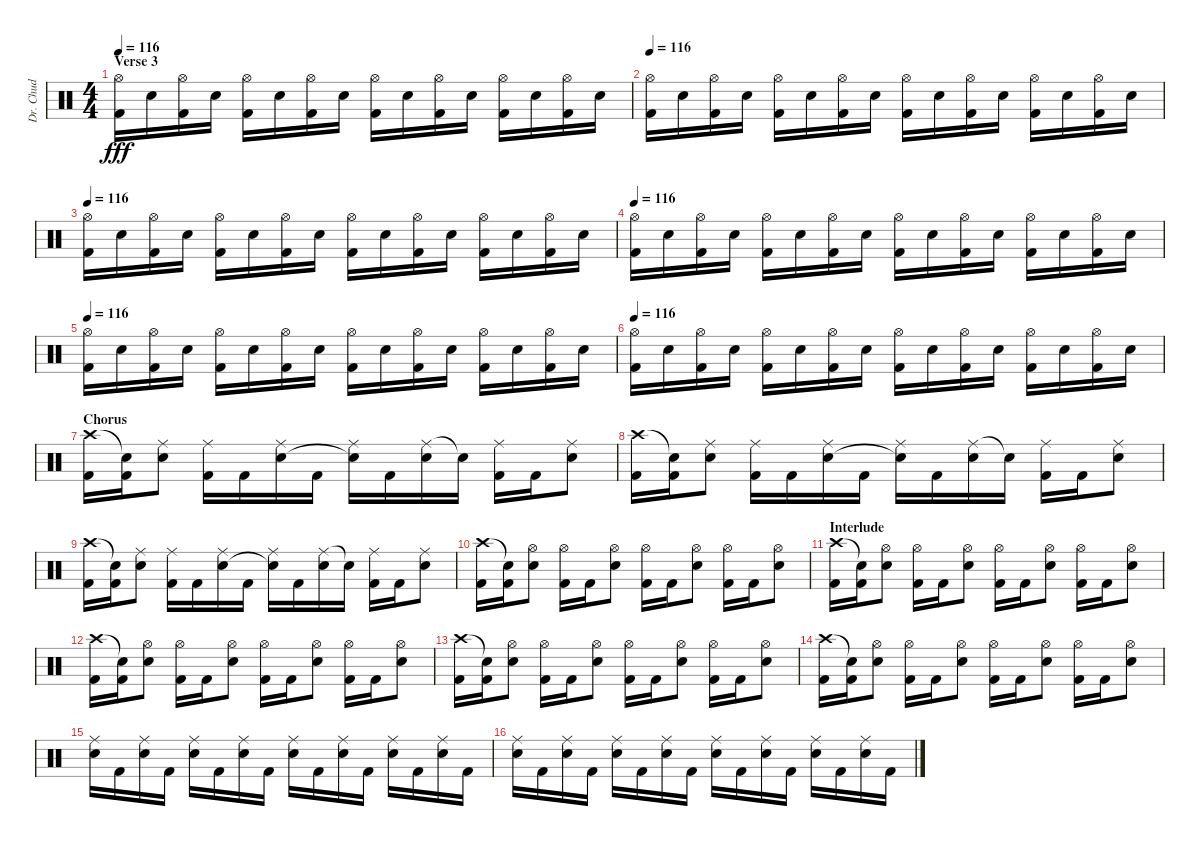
\track ("Dr. Chud" "Dr. Chud") {instrument percussion}
\staff {score}
\articulation defaults
\ts (4 4)
\section ("" "Verse 3")
\tempo 116
\clef neutral
\ks c
("Hi-Hat (open)" "Kick (hit) 2").16{dy fff} "Electric Snare (hit)".16 ("Hi-Hat (open)" "Kick (hit) 2").16 "Electric Snare (hit)".16 ("Hi-Hat (open)" "Kick (hit) 2").16 "Electric Snare (hit)".16 ("Hi-Hat (open)" "Kick (hit) 2").16 "Electric Snare (hit)".16 ("Hi-Hat (open)" "Kick (hit) 2").16 "Electric Snare (hit)".16 ("Hi-Hat (open)" "Kick (hit) 2").16 "Electric Snare (hit)".16 ("Hi-Hat (open)" "Kick (hit) 2").16 "Electric Snare (hit)".16 ("Hi-Hat (open)" "Kick (hit) 2").16 "Electric Snare (hit)".16 |
\tempo 116
("Hi-Hat (open)" "Kick (hit) 2").16 "Electric Snare (hit)".16 ("Hi-Hat (open)" "Kick (hit) 2").16 "Electric Snare (hit)".16 ("Hi-Hat (open)" "Kick (hit) 2").16 "Electric Snare (hit)".16 ("Hi-Hat (open)" "Kick (hit) 2").16 "Electric Snare (hit)".16 ("Hi-Hat (open)" "Kick (hit) 2").16 "Electric Snare (hit)".16 ("Hi-Hat (open)" "Kick (hit) 2").16 "Electric Snare (hit)".16 ("Hi-Hat (open)" "Kick (hit) 2").16 "Electric Snare (hit)".16 ("Hi-Hat (open)" "Kick (hit) 2").16 "Electric Snare (hit)".16 |
\tempo 116
("Hi-Hat (open)" "Kick (hit) 2").16 "Electric Snare (hit)".16 ("Hi-Hat (open)" "Kick (hit) 2").16 "Electric Snare (hit)".16 ("Hi-Hat (open)" "Kick (hit) 2").16 "Electric Snare (hit)".16 ("Hi-Hat (open)" "Kick (hit) 2").16 "Electric Snare (hit)".16 ("Hi-Hat (open)" "Kick (hit) 2").16 "Electric Snare (hit)".16 ("Hi-Hat (open)" "Kick (hit) 2").16 "Electric Snare (hit)".16 ("Hi-Hat (open)" "Kick (hit) 2").16 "Electric Snare (hit)".16 ("Hi-Hat (open)" "Kick (hit) 2").16 "Electric Snare (hit)".16 |
\tempo 116
("Hi-Hat (open)" "Kick (hit) 2").16 "Electric Snare (hit)".16 ("Hi-Hat (open)" "Kick (hit) 2").16 "Electric Snare (hit)".16 ("Hi-Hat (open)" "Kick (hit) 2").16 "Electric Snare (hit)".16 ("Hi-Hat (open)" "Kick (hit) 2").16 "Electric Snare (hit)".16 ("Hi-Hat (open)" "Kick (hit) 2").16 "Electric Snare (hit)".16 ("Hi-Hat (open)" "Kick (hit) 2").16 "Electric Snare (hit)".16 ("Hi-Hat (open)" "Kick (hit) 2").16 "Electric Snare (hit)".16 ("Hi-Hat (open)" "Kick (hit) 2").16 "Electric Snare (hit)".16 |
\tempo 116
("Hi-Hat (open)" "Kick (hit) 2").16 "Electric Snare (hit)".16 ("Hi-Hat (open)" "Kick (hit) 2").16 "Electric Snare (hit)".16 ("Hi-Hat (open)" "Kick (hit) 2").16 "Electric Snare (hit)".16 ("Hi-Hat (open)" "Kick (hit) 2").16 "Electric Snare (hit)".16 ("Hi-Hat (open)" "Kick (hit) 2").16 "Electric Snare (hit)".16 ("Hi-Hat (open)" "Kick (hit) 2").16 "Electric Snare (hit)".16 ("Hi-Hat (open)" "Kick (hit) 2").16 "Electric Snare (hit)".16 ("Hi-Hat (open)" "Kick (hit) 2").16 "Electric Snare (hit)".16 |
\tempo 116
("Hi-Hat (open)" "Kick (hit) 2").16 "Electric Snare (hit)".16 ("Hi-Hat (open)" "Kick (hit) 2").16 "Electric Snare (hit)".16 ("Hi-Hat (open)" "Kick (hit) 2").16 "Electric Snare (hit)".16 ("Hi-Hat (open)" "Kick (hit) 2").16 "Electric Snare (hit)".16 ("Hi-Hat (open)" "Kick (hit) 2").16 "Electric Snare (hit)".16 ("Hi-Hat (open)" "Kick (hit) 2").16 "Electric Snare (hit)".16 ("Hi-Hat (open)" "Kick (hit) 2").16 "Electric Snare (hit)".16 ("Hi-Hat (open)" "Kick (hit) 2").16 "Electric Snare (hit)".16 |
\section ("" "Chorus")
("Crash high (hit)" "Kick (hit) 2").16 ("Snare (hit)"{t} "Kick (hit) 2").16 ("Ride (middle)" "Electric Snare (hit)").8 ("Ride (middle)" "Kick (hit) 2").16 "Kick (hit) 2".16 ("Ride (middle)" "Electric Snare (hit)").16 "Kick (hit) 2".16 ("Ride (middle)" "Snare (hit)"{t}).16 "Kick (hit) 2".16 ("Ride (middle)" "Electric Snare (hit)").16 "Snare (hit)"{t}.16 ("Ride (middle)" "Kick (hit) 2").16 "Kick (hit) 2".16 ("Ride (middle)" "Electric Snare (hit)").8 |
("Crash high (hit)" "Kick (hit) 2").16 ("Snare (hit)"{t} "Kick (hit) 2").16 ("Ride (middle)" "Electric Snare (hit)").8 ("Ride (middle)" "Kick (hit) 2").16 "Kick (hit) 2".16 ("Ride (middle)" "Electric Snare (hit)").16 "Kick (hit) 2".16 ("Ride (middle)" "Snare (hit)"{t}).16 "Kick (hit) 2".16 ("Ride (middle)" "Electric Snare (hit)").16 "Snare (hit)"{t}.16 ("Ride (middle)" "Kick (hit) 2").16 "Kick (hit) 2".16 ("Ride (middle)" "Electric Snare (hit)").8 |
("Crash high (hit)" "Kick (hit) 2").16 ("Snare (hit)"{t} "Kick (hit) 2").16 ("Ride (middle)" "Electric Snare (hit)").8 ("Ride (middle)" "Kick (hit) 2").16 "Kick (hit) 2".16 ("Ride (middle)" "Electric Snare (hit)").16 "Kick (hit) 2".16 ("Ride (middle)" "Snare (hit)"{t}).16 "Kick (hit) 2".16 ("Ride (middle)" "Electric Snare (hit)").16 "Snare (hit)"{t}.16 ("Ride (middle)" "Kick (hit) 2").16 "Kick (hit) 2".16 ("Ride (middle)" "Electric Snare (hit)").8 |
("Crash high (hit)" "Kick (hit) 2").16 ("Snare (hit)"{t} "Kick (hit) 2").16 ("Hi-Hat (open)" "Electric Snare (hit)").8 ("Hi-Hat (open)" "Kick (hit) 2").16 "Kick (hit) 2".16 ("Hi-Hat (open)" "Electric Snare (hit)").8 ("Hi-Hat (open)" "Kick (hit) 2").16 "Kick (hit) 2".16 ("Hi-Hat (open)" "Electric Snare (hit)").8 ("Hi-Hat (open)" "Kick (hit) 2").16 "Kick (hit) 2".16 ("Hi-Hat (open)" "Electric Snare (hit)").8 |
\section ("" "Interlude")
("Crash high (hit)" "Kick (hit) 2").16 ("Snare (hit)"{t} "Kick (hit) 2").16 ("Hi-Hat (open)" "Electric Snare (hit)").8 ("Hi-Hat (open)" "Kick (hit) 2").16 "Kick (hit) 2".16 ("Hi-Hat (open)" "Electric Snare (hit)").8 ("Hi-Hat (open)" "Kick (hit) 2").16 "Kick (hit) 2".16 ("Hi-Hat (open)" "Electric Snare (hit)").8 ("Hi-Hat (open)" "Kick (hit) 2").16 "Kick (hit) 2".16 ("Hi-Hat (open)" "Electric Snare (hit)").8 |
("Crash high (hit)" "Kick (hit) 2").16 ("Snare (hit)"{t} "Kick (hit) 2").16 ("Hi-Hat (open)" "Electric Snare (hit)").8 ("Hi-Hat (open)" "Kick (hit) 2").16 "Kick (hit) 2".16 ("Hi-Hat (open)" "Electric Snare (hit)").8 ("Hi-Hat (open)" "Kick (hit) 2").16 "Kick (hit) 2".16 ("Hi-Hat (open)" "Electric Snare (hit)").8 ("Hi-Hat (open)" "Kick (hit) 2").16 "Kick (hit) 2".16 ("Hi-Hat (open)" "Electric Snare (hit)").8 |
("Crash high (hit)" "Kick (hit) 2").16 ("Snare (hit)"{t} "Kick (hit) 2").16 ("Hi-Hat (open)" "Electric Snare (hit)").8 ("Hi-Hat (open)" "Kick (hit) 2").16 "Kick (hit) 2".16 ("Hi-Hat (open)" "Electric Snare (hit)").8 ("Hi-Hat (open)" "Kick (hit) 2").16 "Kick (hit) 2".16 ("Hi-Hat (open)" "Electric Snare (hit)").8 ("Hi-Hat (open)" "Kick (hit) 2").16 "Kick (hit) 2".16 ("Hi-Hat (open)" "Electric Snare (hit)").8 |
("Crash high (hit)" "Kick (hit) 2").16 ("Snare (hit)"{t} "Kick (hit) 2").16 ("Hi-Hat (open)" "Electric Snare (hit)").8 ("Hi-Hat (open)" "Kick (hit) 2").16 "Kick (hit) 2".16 ("Hi-Hat (open)" "Electric Snare (hit)").8 ("Hi-Hat (open)" "Kick (hit) 2").16 "Kick (hit) 2".16 ("Hi-Hat (open)" "Electric Snare (hit)").8 ("Hi-Hat (open)" "Kick (hit) 2").16 "Kick (hit) 2".16 ("Hi-Hat (open)" "Electric Snare (hit)").8 |
("Ride (middle)" "Electric Snare (hit)").16 "Kick (hit) 2".16 ("Ride (middle)" "Electric Snare (hit)").16 "Kick (hit) 2".16 ("Ride (middle)" "Electric Snare (hit)").16 "Kick (hit) 2".16 ("Ride (middle)" "Electric Snare (hit)").16 "Kick (hit) 2".16 ("Ride (middle)" "Electric Snare (hit)").16 "Kick (hit) 2".16 ("Ride (middle)" "Electric Snare (hit)").16 "Kick (hit) 2".16 ("Ride (middle)" "Electric Snare (hit)").16 "Kick (hit) 2".16 ("Ride (middle)" "Electric Snare (hit)").16 "Kick (hit) 2".16 |
("Ride (middle)" "Electric Snare (hit)").16 "Kick (hit) 2".16 ("Ride (middle)" "Electric Snare (hit)").16 "Kick (hit) 2".16 ("Ride (middle)" "Electric Snare (hit)").16 "Kick (hit) 2".16 ("Ride (middle)" "Electric Snare (hit)").16 "Kick (hit) 2".16 ("Ride (middle)" "Electric Snare (hit)").16 "Kick (hit) 2".16 ("Ride (middle)" "Electric Snare (hit)").16 "Kick (hit) 2".16 ("Ride (middle)" "Electric Snare (hit)").16 "Kick (hit) 2".16 ("Ride (middle)" "Electric Snare (hit)").16 "Kick (hit) 2".16
